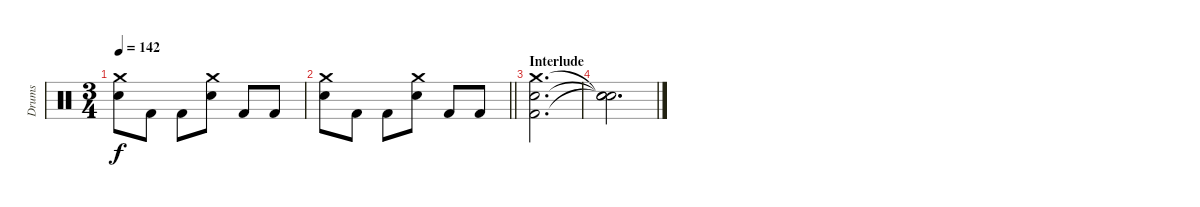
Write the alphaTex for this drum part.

\track ("Drums" "Drums") {instrument percussion}
\staff {score}
\articulation defaults
\ts (3 4)
\tempo 142
\clef neutral
\ks c
("Crash medium (hit)" "Electric Snare (hit)").8{dy f} "Kick (hit) 2".8 "Kick (hit) 2".8 ("Crash medium (hit)" "Electric Snare (hit)").8 "Kick (hit) 2".8 "Kick (hit) 2".8 |
\barLineRight lightlight
("Crash medium (hit)" "Electric Snare (hit)").8 "Kick (hit) 2".8 "Kick (hit) 2".8 ("Crash medium (hit)" "Electric Snare (hit)").8 "Kick (hit) 2".8 "Kick (hit) 2".8 |
\section ("" "Interlude")
("Crash medium (hit)" "Electric Snare (hit)" "Kick (hit) 2").2{d} |
("Snare (hit)"{t} "Snare (hit)"{t} "Snare (hit)"{t}).2{d}
